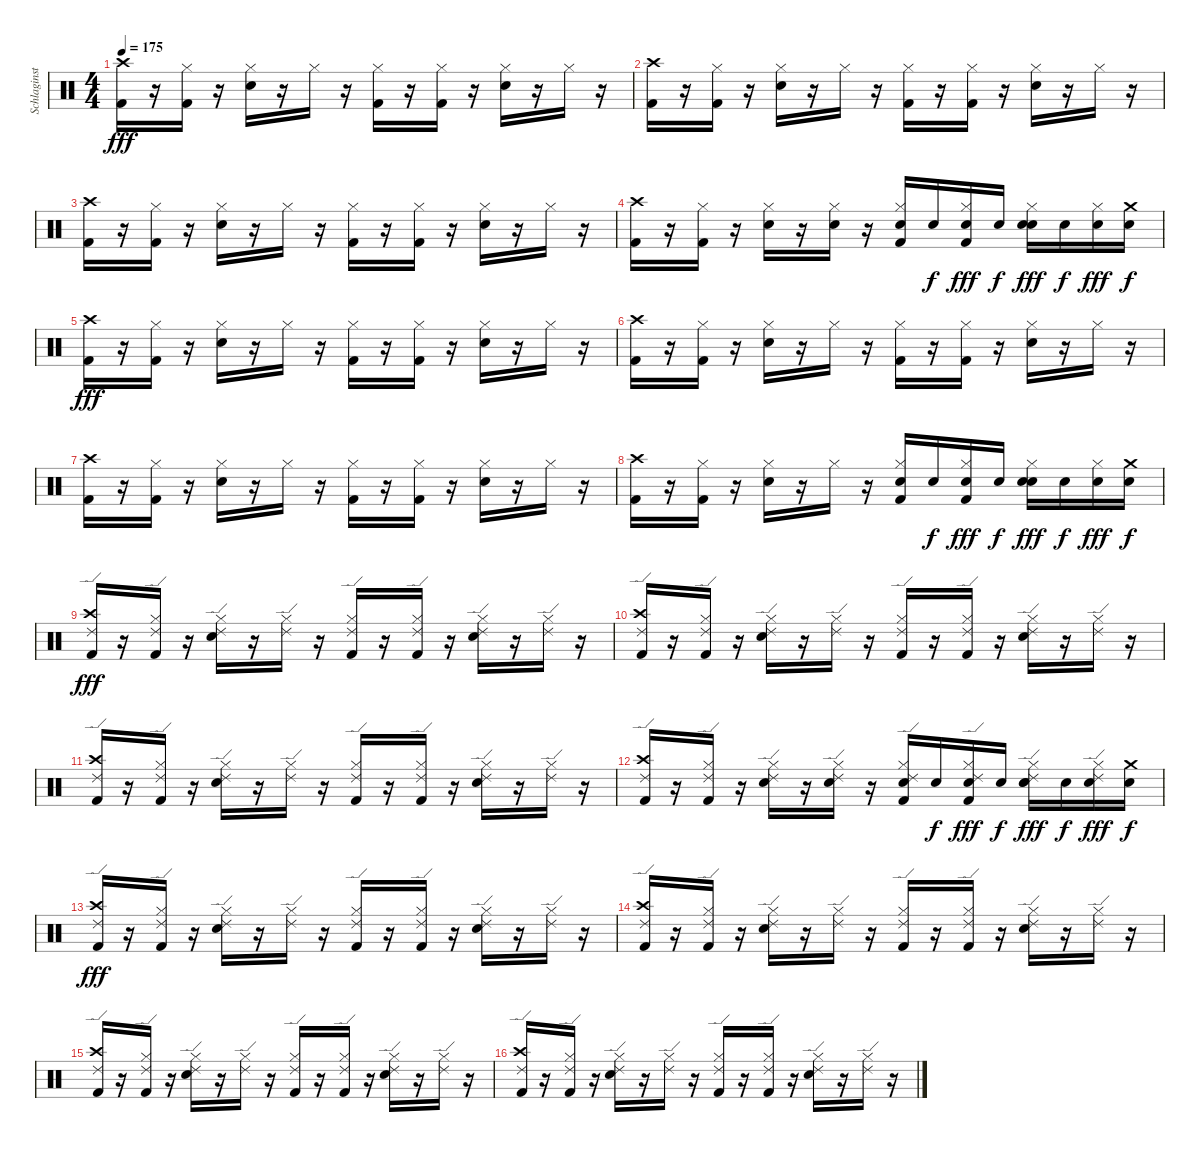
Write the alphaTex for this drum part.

\track ("Schlaginstrumente - Auswahl" "Schlaginst") {instrument percussion}
\staff {score}
\articulation defaults
\ts (4 4)
\tempo 175
\clef neutral
\ks c
("Kick (hit) 2" "Crash high (hit)").16{dy fff} r.16 ("Hi-Hat (closed)" "Kick (hit) 2").16 r.16 ("Snare (hit) 2" "Hi-Hat (closed)").16 r.16 "Hi-Hat (closed)".16 r.16 ("Kick (hit) 2" "Hi-Hat (closed)").16 r.16 ("Kick (hit) 2" "Hi-Hat (closed)").16 r.16 ("Snare (hit) 2" "Hi-Hat (closed)").16 r.16 "Hi-Hat (closed)".16 r.16 |
("Kick (hit) 2" "Crash high (hit)").16 r.16 ("Hi-Hat (closed)" "Kick (hit) 2").16 r.16 ("Snare (hit) 2" "Hi-Hat (closed)").16 r.16 "Hi-Hat (closed)".16 r.16 ("Kick (hit) 2" "Hi-Hat (closed)").16 r.16 ("Kick (hit) 2" "Hi-Hat (closed)").16 r.16 ("Snare (hit) 2" "Hi-Hat (closed)").16 r.16 "Hi-Hat (closed)".16 r.16 |
("Kick (hit) 2" "Crash high (hit)").16 r.16 ("Hi-Hat (closed)" "Kick (hit) 2").16 r.16 ("Snare (hit) 2" "Hi-Hat (closed)").16 r.16 "Hi-Hat (closed)".16 r.16 ("Kick (hit) 2" "Hi-Hat (closed)").16 r.16 ("Kick (hit) 2" "Hi-Hat (closed)").16 r.16 ("Snare (hit) 2" "Hi-Hat (closed)").16 r.16 "Hi-Hat (closed)".16 r.16 |
("Kick (hit) 2" "Crash high (hit)").16 r.16 ("Hi-Hat (closed)" "Kick (hit) 2").16 r.16 ("Snare (hit) 2" "Hi-Hat (closed)").16 r.16 ("Hi-Hat (closed)" "Snare (hit) 2").16 r.16 ("Kick (hit) 2" "Hi-Hat (closed)" "Snare (hit) 2").16 "Snare (hit) 2".16{dy f} ("Kick (hit) 2" "Hi-Hat (closed)" "Snare (hit) 2").16{dy fff} "Snare (hit) 2".16{dy f} ("Snare (hit) 2" "Hi-Hat (closed)" "Snare (hit) 2").16{dy fff} "Snare (hit) 2".16{dy f} ("Hi-Hat (closed)" "Snare (hit) 2").16{dy fff} ("Crash medium (hit)" "Snare (hit) 2").16{dy f} |
("Kick (hit) 2" "Crash high (hit)").16{dy fff} r.16 ("Hi-Hat (closed)" "Kick (hit) 2").16 r.16 ("Snare (hit) 2" "Hi-Hat (closed)").16 r.16 "Hi-Hat (closed)".16 r.16 ("Kick (hit) 2" "Hi-Hat (closed)").16 r.16 ("Kick (hit) 2" "Hi-Hat (closed)").16 r.16 ("Snare (hit) 2" "Hi-Hat (closed)").16 r.16 "Hi-Hat (closed)".16 r.16 |
("Kick (hit) 2" "Crash high (hit)").16 r.16 ("Hi-Hat (closed)" "Kick (hit) 2").16 r.16 ("Snare (hit) 2" "Hi-Hat (closed)").16 r.16 "Hi-Hat (closed)".16 r.16 ("Kick (hit) 2" "Hi-Hat (closed)").16 r.16 ("Kick (hit) 2" "Hi-Hat (closed)").16 r.16 ("Snare (hit) 2" "Hi-Hat (closed)").16 r.16 "Hi-Hat (closed)".16 r.16 |
("Kick (hit) 2" "Crash high (hit)").16 r.16 ("Hi-Hat (closed)" "Kick (hit) 2").16 r.16 ("Snare (hit) 2" "Hi-Hat (closed)").16 r.16 "Hi-Hat (closed)".16 r.16 ("Kick (hit) 2" "Hi-Hat (closed)").16 r.16 ("Kick (hit) 2" "Hi-Hat (closed)").16 r.16 ("Snare (hit) 2" "Hi-Hat (closed)").16 r.16 "Hi-Hat (closed)".16 r.16 |
("Kick (hit) 2" "Crash high (hit)").16 r.16 ("Hi-Hat (closed)" "Kick (hit) 2").16 r.16 ("Snare (hit) 2" "Hi-Hat (closed)").16 r.16 "Hi-Hat (closed)".16 r.16 ("Kick (hit) 2" "Hi-Hat (closed)" "Snare (hit) 2").16 "Snare (hit) 2".16{dy f} ("Kick (hit) 2" "Hi-Hat (closed)" "Snare (hit) 2").16{dy fff} "Snare (hit) 2".16{dy f} ("Snare (hit) 2" "Hi-Hat (closed)" "Snare (hit) 2").16{dy fff} "Snare (hit) 2".16{dy f} ("Hi-Hat (closed)" "Snare (hit) 2").16{dy fff} ("Crash medium (hit)" "Snare (hit) 2").16{dy f} |
("Kick (hit) 2" "Crash high (hit)" "Ride (edge) 2").16{dy fff} r.16 ("Hi-Hat (closed)" "Kick (hit) 2" "Ride (edge) 2").16 r.16 ("Snare (hit) 2" "Hi-Hat (closed)" "Ride (edge) 2").16 r.16 ("Hi-Hat (closed)" "Ride (edge) 2").16 r.16 ("Kick (hit) 2" "Hi-Hat (closed)" "Ride (edge) 2").16 r.16 ("Kick (hit) 2" "Hi-Hat (closed)" "Ride (edge) 2").16 r.16 ("Snare (hit) 2" "Hi-Hat (closed)" "Ride (edge) 2").16 r.16 ("Hi-Hat (closed)" "Ride (edge) 2").16 r.16 |
("Kick (hit) 2" "Crash high (hit)" "Ride (edge) 2").16 r.16 ("Hi-Hat (closed)" "Kick (hit) 2" "Ride (edge) 2").16 r.16 ("Snare (hit) 2" "Hi-Hat (closed)" "Ride (edge) 2").16 r.16 ("Hi-Hat (closed)" "Ride (edge) 2").16 r.16 ("Kick (hit) 2" "Hi-Hat (closed)" "Ride (edge) 2").16 r.16 ("Kick (hit) 2" "Hi-Hat (closed)" "Ride (edge) 2").16 r.16 ("Snare (hit) 2" "Hi-Hat (closed)" "Ride (edge) 2").16 r.16 ("Hi-Hat (closed)" "Ride (edge) 2").16 r.16 |
("Kick (hit) 2" "Crash high (hit)" "Ride (edge) 2").16 r.16 ("Hi-Hat (closed)" "Kick (hit) 2" "Ride (edge) 2").16 r.16 ("Snare (hit) 2" "Hi-Hat (closed)" "Ride (edge) 2").16 r.16 ("Hi-Hat (closed)" "Ride (edge) 2").16 r.16 ("Kick (hit) 2" "Hi-Hat (closed)" "Ride (edge) 2").16 r.16 ("Kick (hit) 2" "Hi-Hat (closed)" "Ride (edge) 2").16 r.16 ("Snare (hit) 2" "Hi-Hat (closed)" "Ride (edge) 2").16 r.16 ("Hi-Hat (closed)" "Ride (edge) 2").16 r.16 |
("Kick (hit) 2" "Crash high (hit)" "Ride (edge) 2").16 r.16 ("Hi-Hat (closed)" "Kick (hit) 2" "Ride (edge) 2").16 r.16 ("Snare (hit) 2" "Hi-Hat (closed)" "Ride (edge) 2").16 r.16 ("Hi-Hat (closed)" "Snare (hit) 2" "Ride (edge) 2").16 r.16 ("Kick (hit) 2" "Hi-Hat (closed)" "Snare (hit) 2" "Ride (edge) 2").16 "Snare (hit) 2".16{dy f} ("Kick (hit) 2" "Hi-Hat (closed)" "Snare (hit) 2" "Ride (edge) 2").16{dy fff} "Snare (hit) 2".16{dy f} ("Snare (hit) 2" "Hi-Hat (closed)" "Snare (hit) 2" "Ride (edge) 2").16{dy fff} "Snare (hit) 2".16{dy f} ("Hi-Hat (closed)" "Snare (hit) 2" "Ride (edge) 2").16{dy fff} ("Crash medium (hit)" "Snare (hit) 2").16{dy f} |
("Kick (hit) 2" "Crash high (hit)" "Ride (edge) 2").16{dy fff} r.16 ("Hi-Hat (closed)" "Kick (hit) 2" "Ride (edge) 2").16 r.16 ("Snare (hit) 2" "Hi-Hat (closed)" "Ride (edge) 2").16 r.16 ("Hi-Hat (closed)" "Ride (edge) 2").16 r.16 ("Kick (hit) 2" "Hi-Hat (closed)" "Ride (edge) 2").16 r.16 ("Kick (hit) 2" "Hi-Hat (closed)" "Ride (edge) 2").16 r.16 ("Snare (hit) 2" "Hi-Hat (closed)" "Ride (edge) 2").16 r.16 ("Hi-Hat (closed)" "Ride (edge) 2").16 r.16 |
("Kick (hit) 2" "Crash high (hit)" "Ride (edge) 2").16 r.16 ("Hi-Hat (closed)" "Kick (hit) 2" "Ride (edge) 2").16 r.16 ("Snare (hit) 2" "Hi-Hat (closed)" "Ride (edge) 2").16 r.16 ("Hi-Hat (closed)" "Ride (edge) 2").16 r.16 ("Kick (hit) 2" "Hi-Hat (closed)" "Ride (edge) 2").16 r.16 ("Kick (hit) 2" "Hi-Hat (closed)" "Ride (edge) 2").16 r.16 ("Snare (hit) 2" "Hi-Hat (closed)" "Ride (edge) 2").16 r.16 ("Hi-Hat (closed)" "Ride (edge) 2").16 r.16 |
("Kick (hit) 2" "Crash high (hit)" "Ride (edge) 2").16 r.16 ("Hi-Hat (closed)" "Kick (hit) 2" "Ride (edge) 2").16 r.16 ("Snare (hit) 2" "Hi-Hat (closed)" "Ride (edge) 2").16 r.16 ("Hi-Hat (closed)" "Ride (edge) 2").16 r.16 ("Kick (hit) 2" "Hi-Hat (closed)" "Ride (edge) 2").16 r.16 ("Kick (hit) 2" "Hi-Hat (closed)" "Ride (edge) 2").16 r.16 ("Snare (hit) 2" "Hi-Hat (closed)" "Ride (edge) 2").16 r.16 ("Hi-Hat (closed)" "Ride (edge) 2").16 r.16 |
("Kick (hit) 2" "Crash high (hit)" "Ride (edge) 2").16 r.16 ("Hi-Hat (closed)" "Kick (hit) 2" "Ride (edge) 2").16 r.16 ("Snare (hit) 2" "Hi-Hat (closed)" "Ride (edge) 2").16 r.16 ("Hi-Hat (closed)" "Ride (edge) 2").16 r.16 ("Kick (hit) 2" "Hi-Hat (closed)" "Ride (edge) 2").16 r.16 ("Kick (hit) 2" "Hi-Hat (closed)" "Ride (edge) 2").16 r.16 ("Snare (hit) 2" "Hi-Hat (closed)" "Ride (edge) 2").16 r.16 ("Hi-Hat (closed)" "Ride (edge) 2").16 r.16
